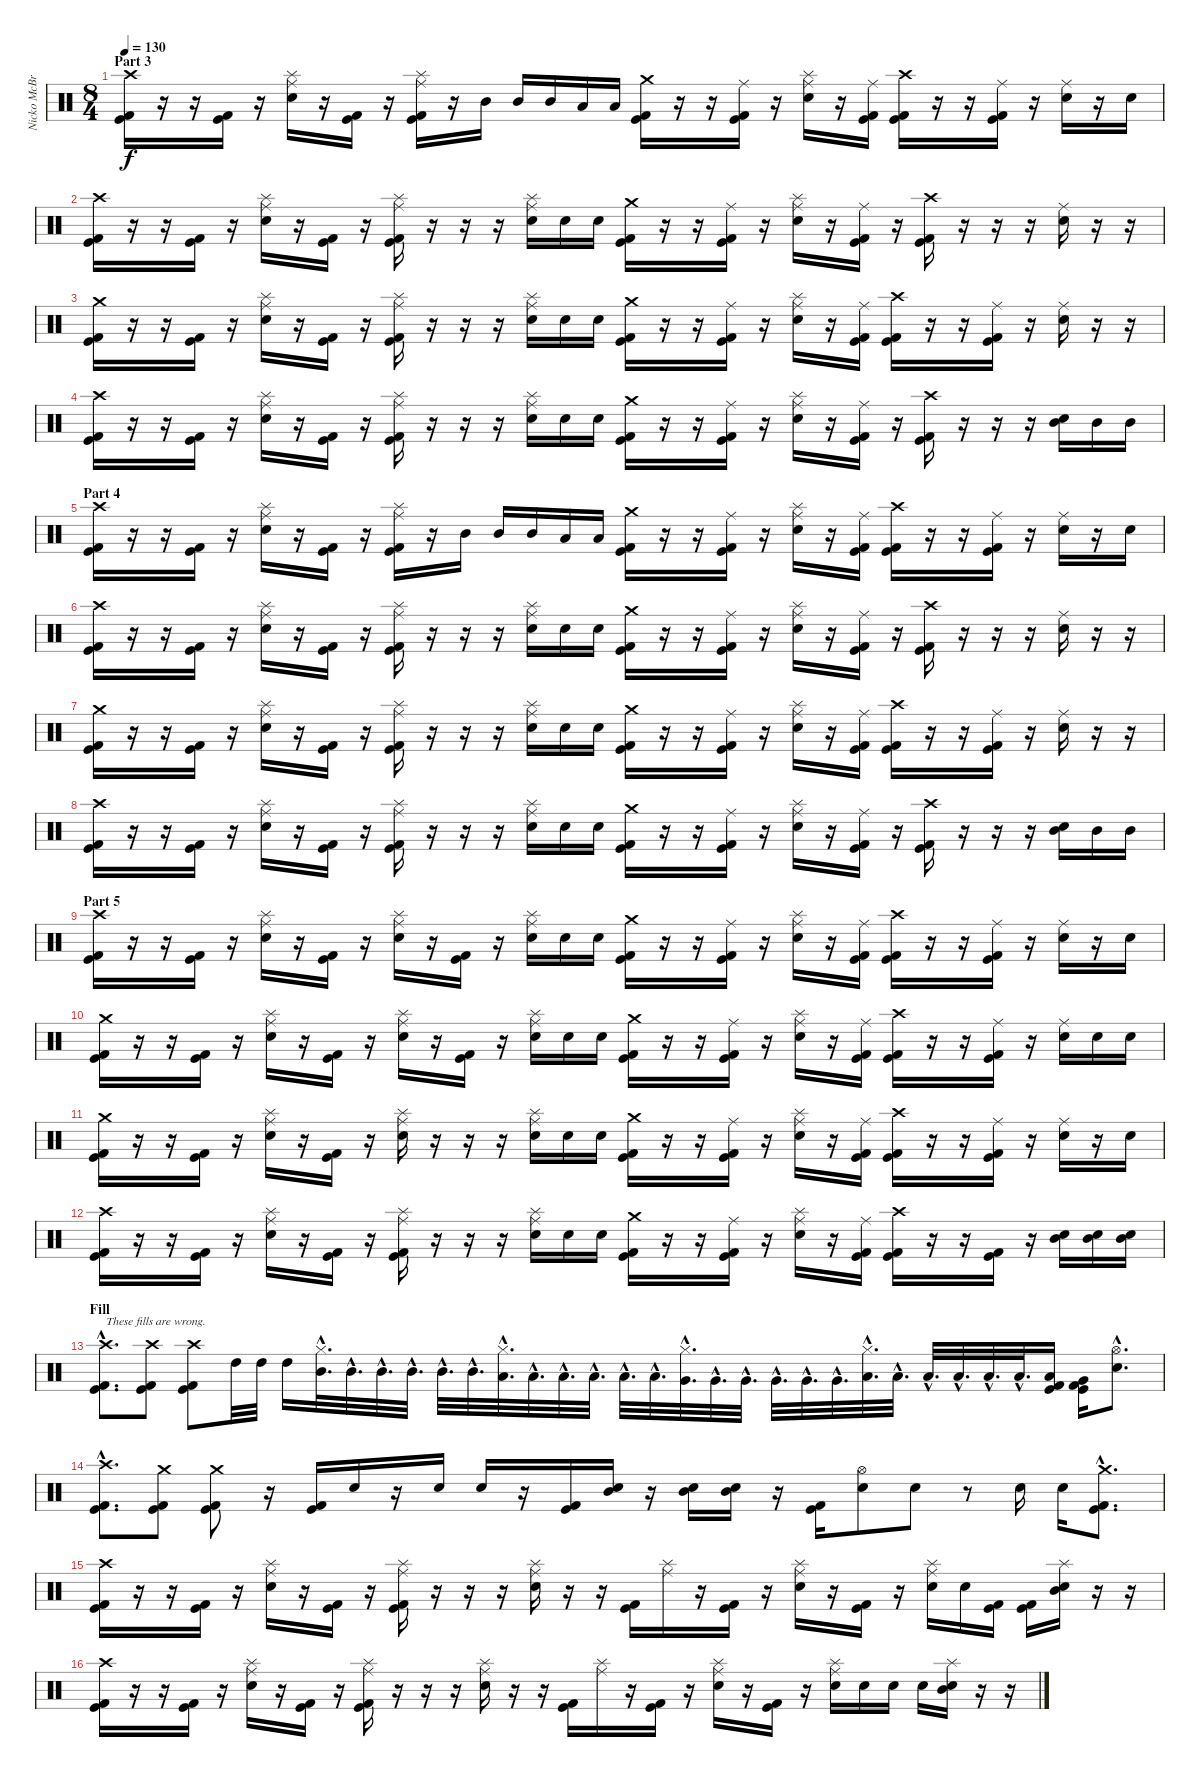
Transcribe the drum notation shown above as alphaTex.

\track ("Nicko McBrain" "Nicko McBr") {instrument percussion}
\staff {score}
\articulation defaults
\ts (8 4)
\section ("" "Part 3")
\tempo 130
\clef neutral
\ks c
("Crash high (hit)" "Kick (hit)" "Kick (hit) 2").16{dy f} r.16 r.16 ("Kick (hit) 2" "Kick (hit)").16 r.16 ("Ride (middle)" "Splash (hit)" "Snare (hit) 2").16 r.16 ("Kick (hit)" "Kick (hit) 2").16 r.16 ("Ride (middle)" "Splash (hit)" "Kick (hit)" "Kick (hit) 2").16 r.16 "Mid Tom (hit)".16 "Mid Tom (hit)".16 "Mid Tom (hit)".16 "Low Tom (hit)".16 "Low Tom (hit)".16 ("Crash medium (hit)" "Kick (hit)" "Kick (hit) 2").16 r.16 r.16 ("Ride (middle)" "Kick (hit)" "Kick (hit) 2").16 r.16 ("Ride (middle)" "Splash (hit)" "Snare (hit) 2").16 r.16 ("Ride (middle)" "Kick (hit)" "Kick (hit) 2").16 ("Crash high (hit)" "Kick (hit) 2" "Kick (hit)").16 r.16 r.16 ("Ride (middle)" "Kick (hit)" "Kick (hit) 2").16 r.16 ("Ride (middle)" "Snare (hit) 2").16 r.16 "Snare (hit) 2".16 |
("Crash high (hit)" "Kick (hit)" "Kick (hit) 2").16 r.16 r.16 ("Kick (hit) 2" "Kick (hit)").16 r.16 ("Ride (middle)" "Splash (hit)" "Snare (hit) 2").16 r.16 ("Kick (hit)" "Kick (hit) 2").16 r.16 ("Ride (middle)" "Splash (hit)" "Kick (hit)" "Kick (hit) 2").16 r.16 r.16 r.16 ("Ride (middle)" "Splash (hit)" "Snare (hit) 2").16 "Snare (hit) 2".16 "Snare (hit) 2".16 ("Crash medium (hit)" "Kick (hit)" "Kick (hit) 2").16 r.16 r.16 ("Ride (middle)" "Kick (hit)" "Kick (hit) 2").16 r.16 ("Ride (middle)" "Splash (hit)" "Snare (hit) 2").16 r.16 ("Ride (middle)" "Kick (hit)" "Kick (hit) 2").16 r.16 ("Crash high (hit)" "Kick (hit) 2" "Kick (hit)").16 r.16 r.16 r.16 ("Ride (middle)" "Snare (hit) 2").16 r.16 r.16 |
("Crash medium (hit)" "Kick (hit)" "Kick (hit) 2").16 r.16 r.16 ("Kick (hit) 2" "Kick (hit)").16 r.16 ("Ride (middle)" "Splash (hit)" "Snare (hit) 2").16 r.16 ("Kick (hit)" "Kick (hit) 2").16 r.16 ("Ride (middle)" "Splash (hit)" "Kick (hit)" "Kick (hit) 2").16 r.16 r.16 r.16 ("Ride (middle)" "Splash (hit)" "Snare (hit) 2").16 "Snare (hit) 2".16 "Snare (hit) 2".16 ("Crash medium (hit)" "Kick (hit)" "Kick (hit) 2").16 r.16 r.16 ("Ride (middle)" "Kick (hit)" "Kick (hit) 2").16 r.16 ("Ride (middle)" "Splash (hit)" "Snare (hit) 2").16 r.16 ("Ride (middle)" "Kick (hit)" "Kick (hit) 2").16 ("Crash high (hit)" "Kick (hit) 2" "Kick (hit)").16 r.16 r.16 ("Ride (middle)" "Kick (hit)" "Kick (hit) 2").16 r.16 ("Ride (middle)" "Snare (hit) 2").16 r.16 r.16 |
("Crash high (hit)" "Kick (hit)" "Kick (hit) 2").16 r.16 r.16 ("Kick (hit) 2" "Kick (hit)").16 r.16 ("Ride (middle)" "Splash (hit)" "Snare (hit) 2").16 r.16 ("Kick (hit)" "Kick (hit) 2").16 r.16 ("Ride (middle)" "Splash (hit)" "Kick (hit)" "Kick (hit) 2").16 r.16 r.16 r.16 ("Ride (middle)" "Splash (hit)" "Snare (hit) 2").16 "Snare (hit) 2".16 "Snare (hit) 2".16 ("Crash medium (hit)" "Kick (hit)" "Kick (hit) 2").16 r.16 r.16 ("Ride (middle)" "Kick (hit)" "Kick (hit) 2").16 r.16 ("Ride (middle)" "Splash (hit)" "Snare (hit) 2").16 r.16 ("Ride (middle)" "Kick (hit)" "Kick (hit) 2").16 r.16 ("Crash high (hit)" "Kick (hit) 2" "Kick (hit)").16 r.16 r.16 r.16 ("Mid Tom (hit)" "Snare (hit) 2").16 "Mid Tom (hit)".16 "Mid Tom (hit)".16 |
\section ("" "Part 4")
("Crash high (hit)" "Kick (hit)" "Kick (hit) 2").16 r.16 r.16 ("Kick (hit) 2" "Kick (hit)").16 r.16 ("Ride (middle)" "Splash (hit)" "Snare (hit) 2").16 r.16 ("Kick (hit)" "Kick (hit) 2").16 r.16 ("Ride (middle)" "Splash (hit)" "Kick (hit)" "Kick (hit) 2").16 r.16 "Mid Tom (hit)".16 "Mid Tom (hit)".16 "Mid Tom (hit)".16 "Low Tom (hit)".16 "Low Tom (hit)".16 ("Crash medium (hit)" "Kick (hit)" "Kick (hit) 2").16 r.16 r.16 ("Ride (middle)" "Kick (hit)" "Kick (hit) 2").16 r.16 ("Ride (middle)" "Splash (hit)" "Snare (hit) 2").16 r.16 ("Ride (middle)" "Kick (hit)" "Kick (hit) 2").16 ("Crash high (hit)" "Kick (hit) 2" "Kick (hit)").16 r.16 r.16 ("Ride (middle)" "Kick (hit)" "Kick (hit) 2").16 r.16 ("Ride (middle)" "Snare (hit) 2").16 r.16 "Snare (hit) 2".16 |
("Crash high (hit)" "Kick (hit)" "Kick (hit) 2").16 r.16 r.16 ("Kick (hit) 2" "Kick (hit)").16 r.16 ("Ride (middle)" "Splash (hit)" "Snare (hit) 2").16 r.16 ("Kick (hit)" "Kick (hit) 2").16 r.16 ("Ride (middle)" "Splash (hit)" "Kick (hit)" "Kick (hit) 2").16 r.16 r.16 r.16 ("Ride (middle)" "Splash (hit)" "Snare (hit) 2").16 "Snare (hit) 2".16 "Snare (hit) 2".16 ("Crash medium (hit)" "Kick (hit)" "Kick (hit) 2").16 r.16 r.16 ("Ride (middle)" "Kick (hit)" "Kick (hit) 2").16 r.16 ("Ride (middle)" "Splash (hit)" "Snare (hit) 2").16 r.16 ("Ride (middle)" "Kick (hit)" "Kick (hit) 2").16 r.16 ("Crash high (hit)" "Kick (hit) 2" "Kick (hit)").16 r.16 r.16 r.16 ("Ride (middle)" "Snare (hit) 2").16 r.16 r.16 |
("Crash medium (hit)" "Kick (hit)" "Kick (hit) 2").16 r.16 r.16 ("Kick (hit) 2" "Kick (hit)").16 r.16 ("Ride (middle)" "Splash (hit)" "Snare (hit) 2").16 r.16 ("Kick (hit)" "Kick (hit) 2").16 r.16 ("Ride (middle)" "Splash (hit)" "Kick (hit)" "Kick (hit) 2").16 r.16 r.16 r.16 ("Ride (middle)" "Splash (hit)" "Snare (hit) 2").16 "Snare (hit) 2".16 "Snare (hit) 2".16 ("Crash medium (hit)" "Kick (hit)" "Kick (hit) 2").16 r.16 r.16 ("Ride (middle)" "Kick (hit)" "Kick (hit) 2").16 r.16 ("Ride (middle)" "Splash (hit)" "Snare (hit) 2").16 r.16 ("Ride (middle)" "Kick (hit)" "Kick (hit) 2").16 ("Crash high (hit)" "Kick (hit) 2" "Kick (hit)").16 r.16 r.16 ("Ride (middle)" "Kick (hit)" "Kick (hit) 2").16 r.16 ("Ride (middle)" "Snare (hit) 2").16 r.16 r.16 |
("Crash high (hit)" "Kick (hit)" "Kick (hit) 2").16 r.16 r.16 ("Kick (hit) 2" "Kick (hit)").16 r.16 ("Ride (middle)" "Splash (hit)" "Snare (hit) 2").16 r.16 ("Kick (hit)" "Kick (hit) 2").16 r.16 ("Ride (middle)" "Splash (hit)" "Kick (hit)" "Kick (hit) 2").16 r.16 r.16 r.16 ("Ride (middle)" "Splash (hit)" "Snare (hit) 2").16 "Snare (hit) 2".16 "Snare (hit) 2".16 ("Crash medium (hit)" "Kick (hit)" "Kick (hit) 2").16 r.16 r.16 ("Ride (middle)" "Kick (hit)" "Kick (hit) 2").16 r.16 ("Ride (middle)" "Splash (hit)" "Snare (hit) 2").16 r.16 ("Ride (middle)" "Kick (hit)" "Kick (hit) 2").16 r.16 ("Crash high (hit)" "Kick (hit) 2" "Kick (hit)").16 r.16 r.16 r.16 ("Mid Tom (hit)" "Snare (hit) 2").16 "Mid Tom (hit)".16 "Mid Tom (hit)".16 |
\section ("" "Part 5")
("Crash high (hit)" "Kick (hit)" "Kick (hit) 2").16 r.16 r.16 ("Kick (hit) 2" "Kick (hit)").16 r.16 ("Ride (middle)" "Splash (hit)" "Snare (hit) 2").16 r.16 ("Kick (hit)" "Kick (hit) 2").16 r.16 ("Ride (middle)" "Splash (hit)" "Snare (hit) 2").16 r.16 ("Kick (hit) 2" "Kick (hit)").16 r.16 ("Ride (middle)" "Splash (hit)" "Snare (hit) 2").16 "Snare (hit) 2".16 "Snare (hit) 2".16 ("Crash medium (hit)" "Kick (hit)" "Kick (hit) 2").16 r.16 r.16 ("Ride (middle)" "Kick (hit)" "Kick (hit) 2").16 r.16 ("Ride (middle)" "Splash (hit)" "Snare (hit) 2").16 r.16 ("Ride (middle)" "Kick (hit)" "Kick (hit) 2").16 ("Crash high (hit)" "Kick (hit) 2" "Kick (hit)").16 r.16 r.16 ("Ride (middle)" "Kick (hit)" "Kick (hit) 2").16 r.16 ("Ride (middle)" "Snare (hit) 2").16 r.16 "Snare (hit) 2".16 |
("Crash medium (hit)" "Kick (hit)" "Kick (hit) 2").16 r.16 r.16 ("Kick (hit) 2" "Kick (hit)").16 r.16 ("Ride (middle)" "Splash (hit)" "Snare (hit) 2").16 r.16 ("Kick (hit)" "Kick (hit) 2").16 r.16 ("Ride (middle)" "Splash (hit)" "Snare (hit) 2").16 r.16 ("Kick (hit) 2" "Kick (hit)").16 r.16 ("Ride (middle)" "Splash (hit)" "Snare (hit) 2").16 "Snare (hit) 2".16 "Snare (hit) 2".16 ("Crash medium (hit)" "Kick (hit)" "Kick (hit) 2").16 r.16 r.16 ("Ride (middle)" "Kick (hit)" "Kick (hit) 2").16 r.16 ("Ride (middle)" "Splash (hit)" "Snare (hit) 2").16 r.16 ("Ride (middle)" "Kick (hit)" "Kick (hit) 2").16 ("Crash high (hit)" "Kick (hit) 2" "Kick (hit)").16 r.16 r.16 ("Ride (middle)" "Kick (hit)" "Kick (hit) 2").16 r.16 ("Ride (middle)" "Snare (hit) 2").16 "Snare (hit) 2".16 "Snare (hit) 2".16 |
("Crash medium (hit)" "Kick (hit)" "Kick (hit) 2").16 r.16 r.16 ("Kick (hit) 2" "Kick (hit)").16 r.16 ("Ride (middle)" "Splash (hit)" "Snare (hit) 2").16 r.16 ("Kick (hit)" "Kick (hit) 2").16 r.16 ("Ride (middle)" "Splash (hit)" "Snare (hit) 2").16 r.16 r.16 r.16 ("Ride (middle)" "Splash (hit)" "Snare (hit) 2").16 "Snare (hit) 2".16 "Snare (hit) 2".16 ("Crash medium (hit)" "Kick (hit)" "Kick (hit) 2").16 r.16 r.16 ("Ride (middle)" "Kick (hit)" "Kick (hit) 2").16 r.16 ("Ride (middle)" "Splash (hit)" "Snare (hit) 2").16 r.16 ("Ride (middle)" "Kick (hit)" "Kick (hit) 2").16 ("Crash high (hit)" "Kick (hit) 2" "Kick (hit)").16 r.16 r.16 ("Ride (middle)" "Kick (hit)" "Kick (hit) 2").16 r.16 ("Ride (middle)" "Snare (hit) 2").16 r.16 "Snare (hit) 2".16 |
("Crash high (hit)" "Kick (hit)" "Kick (hit) 2").16 r.16 r.16 ("Kick (hit) 2" "Kick (hit)").16 r.16 ("Ride (middle)" "Splash (hit)" "Snare (hit) 2").16 r.16 ("Kick (hit)" "Kick (hit) 2").16 r.16 ("Ride (middle)" "Splash (hit)" "Kick (hit)" "Kick (hit) 2").16 r.16 r.16 r.16 ("Ride (middle)" "Splash (hit)" "Snare (hit) 2").16 "Snare (hit) 2".16 "Snare (hit) 2".16 ("Crash medium (hit)" "Kick (hit)" "Kick (hit) 2").16 r.16 r.16 ("Ride (middle)" "Kick (hit)" "Kick (hit) 2").16 r.16 ("Ride (middle)" "Splash (hit)" "Snare (hit) 2").16 r.16 ("Ride (middle)" "Kick (hit)" "Kick (hit) 2").16 ("Crash high (hit)" "Kick (hit) 2" "Kick (hit)").16 r.16 r.16 ("Kick (hit) 2" "Kick (hit)").16 r.16 ("Mid Tom (hit)" "Snare (hit) 2").16 ("Mid Tom (hit)" "Snare (hit) 2").16 ("Mid Tom (hit)" "Snare (hit) 2").16 |
\section ("" "Fill")
("Crash high (hit)"{hac} "Kick (hit)"{hac} "Kick (hit) 2"{hac}).8{d txt "These fills are wrong."} ("Crash high (hit)" "Kick (hit)" "Kick (hit) 2").8 ("Crash high (hit)" "Kick (hit)" "Kick (hit) 2").8 "High Tom (hit)".32 "High Tom (hit)".32 "High Tom (hit)".16 ("Mid Tom (hit)"{hac} "Hi-Hat (closed)"{hac}).32{d} "Mid Tom (hit)"{hac}.32{d} "Mid Tom (hit)"{hac}.32{d} "Mid Tom (hit)"{hac}.32{d} "Mid Tom (hit)"{hac}.32{d} "Mid Tom (hit)"{hac}.32{d} ("Low Tom (hit)"{hac} "Hi-Hat (closed)"{hac}).32{d} "Low Tom (hit)"{hac}.32{d} "Low Tom (hit)"{hac}.32{d} "Low Tom (hit)"{hac}.32{d} "Low Tom (hit)"{hac}.32{d} "Low Tom (hit)"{hac}.32{d} ("Very Low Tom (hit)"{hac} "Hi-Hat (closed)"{hac}).32{d} "Very Low Tom (hit)"{hac}.32{d} "Very Low Tom (hit)"{hac}.32{d} "Very Low Tom (hit)"{hac}.32{d} "Very Low Tom (hit)"{hac}.32{d} "Very Low Tom (hit)"{hac}.32{d} ("Low Floor Tom (hit)"{hac} "Hi-Hat (closed)"{hac}).32{d} "Low Floor Tom (hit)"{hac}.32{d} "Low Floor Tom (hit)"{hac}.32{d} "Low Floor Tom (hit)"{hac}.32{d} "Low Floor Tom (hit)"{hac}.32{d} "Low Floor Tom (hit)"{hac}.32{d} ("Low Tom (hit)" "Kick (hit)" "Kick (hit) 2").16 ("Very Low Tom (hit)" "Kick (hit)" "Kick (hit) 2").16 ("Hi-Hat (open)"{hac} "Snare (hit) 2"{hac}).8{d} |
("Crash high (hit)"{hac} "Kick (hit)"{hac} "Kick (hit) 2"{hac}).8{d} ("Crash medium (hit)" "Kick (hit)" "Kick (hit) 2").8 ("Crash medium (hit)" "Kick (hit)" "Kick (hit) 2").8 r.16 ("Kick (hit)" "Kick (hit) 2").16 "Snare (hit) 2".16 r.16 "Snare (hit) 2".16 "Snare (hit) 2".16 r.16 ("Kick (hit)" "Kick (hit) 2").16 ("Mid Tom (hit)" "Snare (hit) 2").16 r.16 ("Mid Tom (hit)" "Snare (hit) 2").16 ("Mid Tom (hit)" "Snare (hit) 2").16 r.16 ("Kick (hit)" "Kick (hit) 2").16 ("Hi-Hat (open)" "Snare (hit) 2").8 "Snare (hit) 2".8 r.8 "Snare (hit) 2".16 "Snare (hit) 2".16 ("Crash medium (hit)"{hac} "Kick (hit)"{hac} "Kick (hit) 2"{hac}).8{d} |
("Crash high (hit)" "Kick (hit)" "Kick (hit) 2").16 r.16 r.16 ("Kick (hit) 2" "Kick (hit)").16 r.16 ("Ride (middle)" "Splash (hit)" "Snare (hit) 2").16 r.16 ("Kick (hit)" "Kick (hit) 2").16 r.16 ("Ride (middle)" "Splash (hit)" "Kick (hit)" "Kick (hit) 2").16 r.16 r.16 r.16 ("Ride (middle)" "Splash (hit)" "Snare (hit) 2").16 r.16 r.16 ("Kick (hit)" "Kick (hit) 2").16 ("Ride (middle)" "Splash (hit)").16 r.16 ("Kick (hit)" "Kick (hit) 2").16 r.16 ("Ride (middle)" "Splash (hit)" "Snare (hit) 2").16 r.16 ("Kick (hit)" "Kick (hit) 2").16 r.16 ("Ride (middle)" "Splash (hit)" "Snare (hit) 2").16 "Snare (hit) 2".16 ("Kick (hit)" "Kick (hit) 2").16 ("Kick (hit)" "Kick (hit) 2").16 ("Mid Tom (hit)" "Splash (hit)" "Snare (hit) 2").16 r.16 r.16 |
("Crash high (hit)" "Kick (hit)" "Kick (hit) 2").16 r.16 r.16 ("Kick (hit) 2" "Kick (hit)").16 r.16 ("Ride (middle)" "Splash (hit)" "Snare (hit) 2").16 r.16 ("Kick (hit)" "Kick (hit) 2").16 r.16 ("Ride (middle)" "Splash (hit)" "Kick (hit)" "Kick (hit) 2").16 r.16 r.16 r.16 ("Ride (middle)" "Splash (hit)" "Snare (hit) 2").16 r.16 r.16 ("Kick (hit)" "Kick (hit) 2").16 ("Ride (middle)" "Splash (hit)").16 r.16 ("Kick (hit)" "Kick (hit) 2").16 r.16 ("Ride (middle)" "Splash (hit)" "Snare (hit) 2").16 r.16 ("Kick (hit)" "Kick (hit) 2").16 r.16 ("Ride (middle)" "Splash (hit)" "Snare (hit) 2").16 "Snare (hit) 2".16 "Snare (hit) 2".16 "Snare (hit) 2".16 ("Mid Tom (hit)" "Splash (hit)" "Snare (hit) 2").16 r.16 r.16
